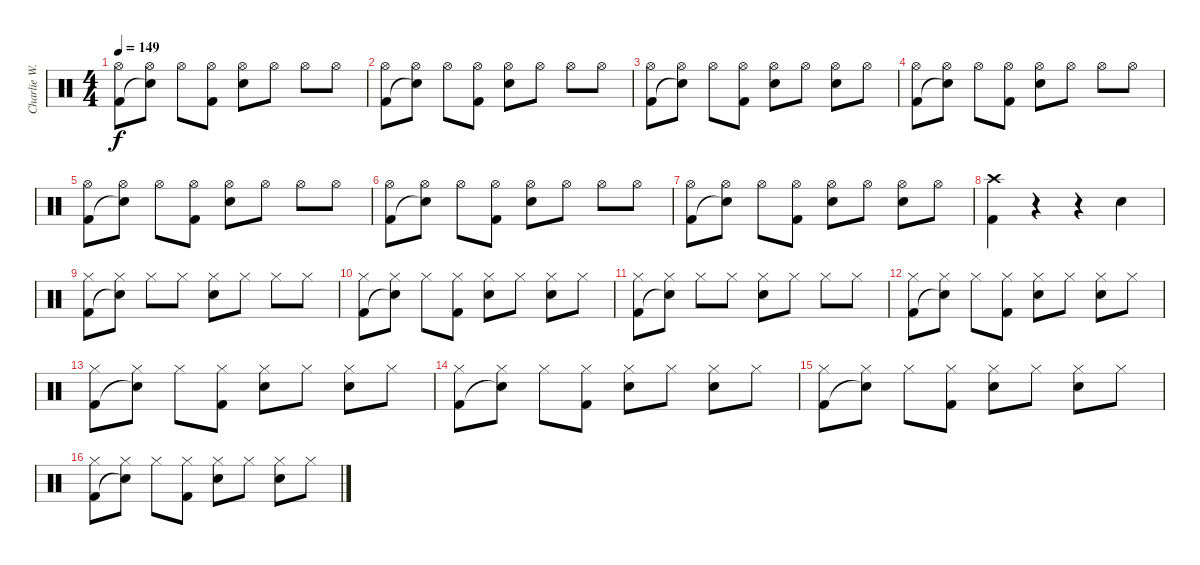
\track ("Charlie W. drums" "Charlie W.") {instrument percussion}
\staff {score}
\articulation defaults
\ts (4 4)
\tempo 149
\clef neutral
\ks c
("Hi-Hat (open)" "Kick (hit) 2").8{dy f} ("Hi-Hat (open)" "Snare (hit)"{t}).8 "Hi-Hat (open)".8 ("Hi-Hat (open)" "Kick (hit) 2").8 ("Hi-Hat (open)" "Snare (hit) 2").8 "Hi-Hat (open)".8 "Hi-Hat (open)".8 "Hi-Hat (open)".8 |
("Hi-Hat (open)" "Kick (hit) 2").8 ("Hi-Hat (open)" "Snare (hit)"{t}).8 "Hi-Hat (open)".8 ("Hi-Hat (open)" "Kick (hit) 2").8 ("Hi-Hat (open)" "Snare (hit) 2").8 "Hi-Hat (open)".8 "Hi-Hat (open)".8 "Hi-Hat (open)".8 |
("Hi-Hat (open)" "Kick (hit) 2").8 ("Hi-Hat (open)" "Snare (hit)"{t}).8 "Hi-Hat (open)".8 ("Hi-Hat (open)" "Kick (hit) 2").8 ("Hi-Hat (open)" "Snare (hit) 2").8 "Hi-Hat (open)".8 ("Hi-Hat (open)" "Snare (hit) 2").8 "Hi-Hat (open)".8 |
("Hi-Hat (open)" "Kick (hit) 2").8 ("Hi-Hat (open)" "Snare (hit)"{t}).8 "Hi-Hat (open)".8 ("Hi-Hat (open)" "Kick (hit) 2").8 ("Hi-Hat (open)" "Snare (hit) 2").8 "Hi-Hat (open)".8 "Hi-Hat (open)".8 "Hi-Hat (open)".8 |
("Hi-Hat (open)" "Kick (hit) 2").8 ("Hi-Hat (open)" "Snare (hit)"{t}).8 "Hi-Hat (open)".8 ("Hi-Hat (open)" "Kick (hit) 2").8 ("Hi-Hat (open)" "Snare (hit) 2").8 "Hi-Hat (open)".8 "Hi-Hat (open)".8 "Hi-Hat (open)".8 |
("Hi-Hat (open)" "Kick (hit) 2").8 ("Hi-Hat (open)" "Snare (hit)"{t}).8 "Hi-Hat (open)".8 ("Hi-Hat (open)" "Kick (hit) 2").8 ("Hi-Hat (open)" "Snare (hit) 2").8 "Hi-Hat (open)".8 "Hi-Hat (open)".8 "Hi-Hat (open)".8 |
("Hi-Hat (open)" "Kick (hit) 2").8 ("Hi-Hat (open)" "Snare (hit)"{t}).8 "Hi-Hat (open)".8 ("Hi-Hat (open)" "Kick (hit) 2").8 ("Hi-Hat (open)" "Snare (hit) 2").8 "Hi-Hat (open)".8 ("Hi-Hat (open)" "Snare (hit) 2").8 "Hi-Hat (open)".8 |
("Crash high (hit)" "Kick (hit) 2").4 r.4 r.4 "Snare (hit) 2".4 |
("Hi-Hat (closed)" "Kick (hit) 2").8 ("Hi-Hat (closed)" "Snare (hit)"{t}).8 "Hi-Hat (closed)".8 "Hi-Hat (closed)".8 ("Hi-Hat (closed)" "Snare (hit) 2").8 "Hi-Hat (closed)".8 "Hi-Hat (closed)".8 "Hi-Hat (closed)".8 |
("Hi-Hat (closed)" "Kick (hit) 2").8 ("Hi-Hat (closed)" "Snare (hit)"{t}).8 "Hi-Hat (closed)".8 ("Hi-Hat (closed)" "Kick (hit) 2").8 ("Hi-Hat (closed)" "Snare (hit) 2").8 "Hi-Hat (closed)".8 ("Hi-Hat (closed)" "Snare (hit) 2").8 "Hi-Hat (closed)".8 |
("Hi-Hat (closed)" "Kick (hit) 2").8 ("Hi-Hat (closed)" "Snare (hit)"{t}).8 "Hi-Hat (closed)".8 "Hi-Hat (closed)".8 ("Hi-Hat (closed)" "Snare (hit) 2").8 "Hi-Hat (closed)".8 "Hi-Hat (closed)".8 "Hi-Hat (closed)".8 |
("Hi-Hat (closed)" "Kick (hit) 2").8 ("Hi-Hat (closed)" "Snare (hit)"{t}).8 "Hi-Hat (closed)".8 ("Hi-Hat (closed)" "Kick (hit) 2").8 ("Hi-Hat (closed)" "Snare (hit) 2").8 "Hi-Hat (closed)".8 ("Hi-Hat (closed)" "Snare (hit) 2").8 "Hi-Hat (closed)".8 |
("Hi-Hat (closed)" "Kick (hit) 2").8 ("Hi-Hat (closed)" "Snare (hit)"{t}).8 "Hi-Hat (closed)".8 ("Hi-Hat (closed)" "Kick (hit) 2").8 ("Hi-Hat (closed)" "Snare (hit) 2").8 "Hi-Hat (closed)".8 ("Hi-Hat (closed)" "Snare (hit) 2").8 "Hi-Hat (closed)".8 |
("Hi-Hat (closed)" "Kick (hit) 2").8 ("Hi-Hat (closed)" "Snare (hit)"{t}).8 "Hi-Hat (closed)".8 ("Hi-Hat (closed)" "Kick (hit) 2").8 ("Hi-Hat (closed)" "Snare (hit) 2").8 "Hi-Hat (closed)".8 ("Hi-Hat (closed)" "Snare (hit) 2").8 "Hi-Hat (closed)".8 |
("Hi-Hat (closed)" "Kick (hit) 2").8 ("Hi-Hat (closed)" "Snare (hit)"{t}).8 "Hi-Hat (closed)".8 ("Hi-Hat (closed)" "Kick (hit) 2").8 ("Hi-Hat (closed)" "Snare (hit) 2").8 "Hi-Hat (closed)".8 ("Hi-Hat (closed)" "Snare (hit) 2").8 "Hi-Hat (closed)".8 |
("Hi-Hat (closed)" "Kick (hit) 2").8 ("Hi-Hat (closed)" "Snare (hit)"{t}).8 "Hi-Hat (closed)".8 ("Hi-Hat (closed)" "Kick (hit) 2").8 ("Hi-Hat (closed)" "Snare (hit) 2").8 "Hi-Hat (closed)".8 ("Hi-Hat (closed)" "Snare (hit) 2").8 "Hi-Hat (closed)".8
